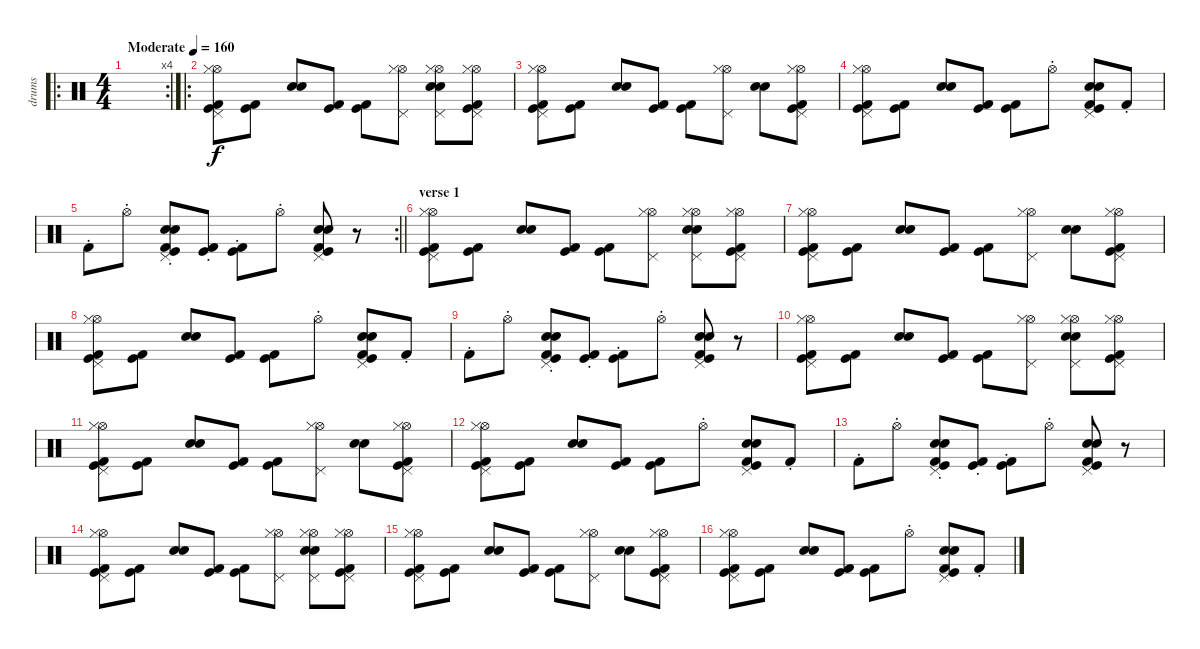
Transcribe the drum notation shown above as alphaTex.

\track ("drums" "drums") {instrument percussion}
\staff {score}
\articulation defaults
\ro
\rc 4
\ts (4 4)
\tempo (160 "Moderate")
\clef neutral
\ks c
|
\ro
("Hi-Hat (open)" "Hi-Hat (closed)" "Pedal Hi-Hat (hit)" "Kick (hit)" "Kick (hit) 2").8 ("Kick (hit)" "Kick (hit) 2").8 ("Electric Snare (hit)" "Snare (hit) 2").8 ("Kick (hit)" "Kick (hit) 2").8 ("Kick (hit)" "Kick (hit) 2").8 ("Hi-Hat (open)" "Pedal Hi-Hat (hit)" "Hi-Hat (closed)").8 ("Hi-Hat (open)" "Electric Snare (hit)" "Pedal Hi-Hat (hit)" "Hi-Hat (closed)" "Snare (hit) 2").8 ("Hi-Hat (open)" "Pedal Hi-Hat (hit)" "Hi-Hat (closed)" "Kick (hit)" "Kick (hit) 2").8 |
("Hi-Hat (open)" "Pedal Hi-Hat (hit)" "Hi-Hat (closed)" "Kick (hit)" "Kick (hit) 2").8 ("Kick (hit)" "Kick (hit) 2").8 ("Electric Snare (hit)" "Snare (hit) 2").8 ("Kick (hit)" "Kick (hit) 2").8 ("Kick (hit)" "Kick (hit) 2").8 ("Hi-Hat (open)" "Pedal Hi-Hat (hit)" "Hi-Hat (closed)").8 ("Electric Snare (hit)" "Snare (hit) 2").8 ("Hi-Hat (open)" "Pedal Hi-Hat (hit)" "Hi-Hat (closed)" "Kick (hit)" "Kick (hit) 2").8 |
("Hi-Hat (open)" "Pedal Hi-Hat (hit)" "Hi-Hat (closed)" "Kick (hit)" "Kick (hit) 2").8 ("Kick (hit)" "Kick (hit) 2").8 ("Electric Snare (hit)" "Snare (hit) 2").8 ("Kick (hit)" "Kick (hit) 2").8 ("Kick (hit)" "Kick (hit) 2").8 "Hi-Hat (open)"{st}.8 ("Electric Snare (hit)" "Pedal Hi-Hat (hit)" "Snare (hit) 2" "Kick (hit)" "Kick (hit) 2").8 "Kick (hit) 2"{st}.8 |
\rc 2
\barLineRight lightlight "Kick (hit) 2"{st}.8 "Hi-Hat (open)"{st}.8
("Electric Snare (hit)"{st} "Pedal Hi-Hat (hit)"{st} "Snare (hit) 2"{st} "Kick (hit)"{st} "Kick (hit) 2"{st}).8 ("Kick (hit)"{st} "Kick (hit) 2"{st}).8 ("Kick (hit)"{st} "Kick (hit) 2"{st}).8 "Hi-Hat (open)"{st}.8 ("Electric Snare (hit)" "Pedal Hi-Hat (hit)" "Snare (hit) 2" "Kick (hit)" "Kick (hit) 2").8 r.8 |
\section ("" "verse 1")
("Hi-Hat (open)" "Hi-Hat (closed)" "Pedal Hi-Hat (hit)" "Kick (hit)" "Kick (hit) 2").8 ("Kick (hit)" "Kick (hit) 2").8 ("Electric Snare (hit)" "Snare (hit) 2").8 ("Kick (hit)" "Kick (hit) 2").8 ("Kick (hit)" "Kick (hit) 2").8 ("Hi-Hat (open)" "Pedal Hi-Hat (hit)" "Hi-Hat (closed)").8 ("Hi-Hat (open)" "Electric Snare (hit)" "Pedal Hi-Hat (hit)" "Hi-Hat (closed)" "Snare (hit) 2").8 ("Hi-Hat (open)" "Pedal Hi-Hat (hit)" "Hi-Hat (closed)" "Kick (hit)" "Kick (hit) 2").8 |
("Hi-Hat (open)" "Pedal Hi-Hat (hit)" "Hi-Hat (closed)" "Kick (hit)" "Kick (hit) 2").8 ("Kick (hit)" "Kick (hit) 2").8 ("Electric Snare (hit)" "Snare (hit) 2").8 ("Kick (hit)" "Kick (hit) 2").8 ("Kick (hit)" "Kick (hit) 2").8 ("Hi-Hat (open)" "Pedal Hi-Hat (hit)" "Hi-Hat (closed)").8 ("Electric Snare (hit)" "Snare (hit) 2").8 ("Hi-Hat (open)" "Pedal Hi-Hat (hit)" "Hi-Hat (closed)" "Kick (hit)" "Kick (hit) 2").8 |
("Hi-Hat (open)" "Pedal Hi-Hat (hit)" "Hi-Hat (closed)" "Kick (hit)" "Kick (hit) 2").8 ("Kick (hit)" "Kick (hit) 2").8 ("Electric Snare (hit)" "Snare (hit) 2").8 ("Kick (hit)" "Kick (hit) 2").8 ("Kick (hit)" "Kick (hit) 2").8 "Hi-Hat (open)"{st}.8 ("Electric Snare (hit)" "Pedal Hi-Hat (hit)" "Snare (hit) 2" "Kick (hit)" "Kick (hit) 2").8 "Kick (hit) 2"{st}.8 |
"Kick (hit) 2"{st}.8 "Hi-Hat (open)"{st}.8 ("Electric Snare (hit)"{st} "Pedal Hi-Hat (hit)"{st} "Snare (hit) 2"{st} "Kick (hit)"{st} "Kick (hit) 2"{st}).8 ("Kick (hit)"{st} "Kick (hit) 2"{st}).8 ("Kick (hit)"{st} "Kick (hit) 2"{st}).8 "Hi-Hat (open)"{st}.8 ("Electric Snare (hit)" "Pedal Hi-Hat (hit)" "Snare (hit) 2" "Kick (hit)" "Kick (hit) 2").8 r.8 |
("Hi-Hat (open)" "Hi-Hat (closed)" "Pedal Hi-Hat (hit)" "Kick (hit)" "Kick (hit) 2").8 ("Kick (hit)" "Kick (hit) 2").8 ("Electric Snare (hit)" "Snare (hit) 2").8 ("Kick (hit)" "Kick (hit) 2").8 ("Kick (hit)" "Kick (hit) 2").8 ("Hi-Hat (open)" "Pedal Hi-Hat (hit)" "Hi-Hat (closed)").8 ("Hi-Hat (open)" "Electric Snare (hit)" "Pedal Hi-Hat (hit)" "Hi-Hat (closed)" "Snare (hit) 2").8 ("Hi-Hat (open)" "Pedal Hi-Hat (hit)" "Hi-Hat (closed)" "Kick (hit)" "Kick (hit) 2").8 |
("Hi-Hat (open)" "Pedal Hi-Hat (hit)" "Hi-Hat (closed)" "Kick (hit)" "Kick (hit) 2").8 ("Kick (hit)" "Kick (hit) 2").8 ("Electric Snare (hit)" "Snare (hit) 2").8 ("Kick (hit)" "Kick (hit) 2").8 ("Kick (hit)" "Kick (hit) 2").8 ("Hi-Hat (open)" "Pedal Hi-Hat (hit)" "Hi-Hat (closed)").8 ("Electric Snare (hit)" "Snare (hit) 2").8 ("Hi-Hat (open)" "Pedal Hi-Hat (hit)" "Hi-Hat (closed)" "Kick (hit)" "Kick (hit) 2").8 |
("Hi-Hat (open)" "Pedal Hi-Hat (hit)" "Hi-Hat (closed)" "Kick (hit)" "Kick (hit) 2").8 ("Kick (hit)" "Kick (hit) 2").8 ("Electric Snare (hit)" "Snare (hit) 2").8 ("Kick (hit)" "Kick (hit) 2").8 ("Kick (hit)" "Kick (hit) 2").8 "Hi-Hat (open)"{st}.8 ("Electric Snare (hit)" "Pedal Hi-Hat (hit)" "Snare (hit) 2" "Kick (hit)" "Kick (hit) 2").8 "Kick (hit) 2"{st}.8 |
"Kick (hit) 2"{st}.8 "Hi-Hat (open)"{st}.8 ("Electric Snare (hit)"{st} "Pedal Hi-Hat (hit)"{st} "Snare (hit) 2"{st} "Kick (hit)"{st} "Kick (hit) 2"{st}).8 ("Kick (hit)"{st} "Kick (hit) 2"{st}).8 ("Kick (hit)"{st} "Kick (hit) 2"{st}).8 "Hi-Hat (open)"{st}.8 ("Electric Snare (hit)" "Pedal Hi-Hat (hit)" "Snare (hit) 2" "Kick (hit)" "Kick (hit) 2").8 r.8 |
("Hi-Hat (open)" "Hi-Hat (closed)" "Pedal Hi-Hat (hit)" "Kick (hit)" "Kick (hit) 2").8 ("Kick (hit)" "Kick (hit) 2").8 ("Electric Snare (hit)" "Snare (hit) 2").8 ("Kick (hit)" "Kick (hit) 2").8 ("Kick (hit)" "Kick (hit) 2").8 ("Hi-Hat (open)" "Pedal Hi-Hat (hit)" "Hi-Hat (closed)").8 ("Hi-Hat (open)" "Electric Snare (hit)" "Pedal Hi-Hat (hit)" "Hi-Hat (closed)" "Snare (hit) 2").8 ("Hi-Hat (open)" "Pedal Hi-Hat (hit)" "Hi-Hat (closed)" "Kick (hit)" "Kick (hit) 2").8 |
("Hi-Hat (open)" "Pedal Hi-Hat (hit)" "Hi-Hat (closed)" "Kick (hit)" "Kick (hit) 2").8 ("Kick (hit)" "Kick (hit) 2").8 ("Electric Snare (hit)" "Snare (hit) 2").8 ("Kick (hit)" "Kick (hit) 2").8 ("Kick (hit)" "Kick (hit) 2").8 ("Hi-Hat (open)" "Pedal Hi-Hat (hit)" "Hi-Hat (closed)").8 ("Electric Snare (hit)" "Snare (hit) 2").8 ("Hi-Hat (open)" "Pedal Hi-Hat (hit)" "Hi-Hat (closed)" "Kick (hit)" "Kick (hit) 2").8 |
("Hi-Hat (open)" "Pedal Hi-Hat (hit)" "Hi-Hat (closed)" "Kick (hit)" "Kick (hit) 2").8 ("Kick (hit)" "Kick (hit) 2").8 ("Electric Snare (hit)" "Snare (hit) 2").8 ("Kick (hit)" "Kick (hit) 2").8 ("Kick (hit)" "Kick (hit) 2").8 "Hi-Hat (open)"{st}.8 ("Electric Snare (hit)" "Pedal Hi-Hat (hit)" "Snare (hit) 2" "Kick (hit)" "Kick (hit) 2").8 "Kick (hit) 2"{st}.8
